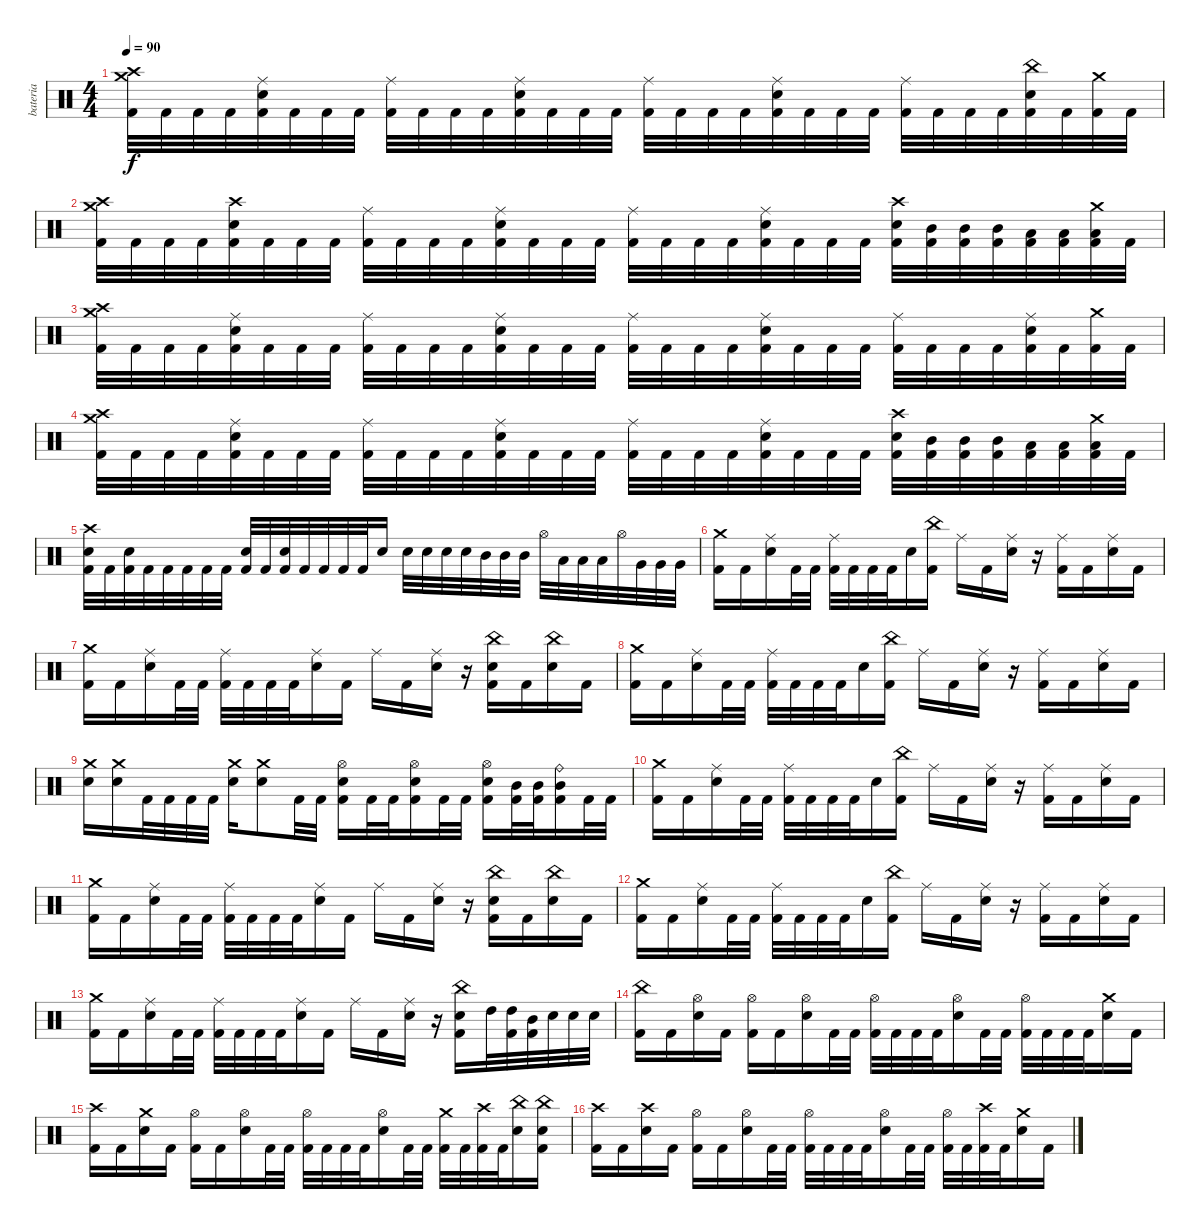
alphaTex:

\track ("bateria" "bateria") {instrument percussion}
\staff {score}
\articulation defaults
\ts (4 4)
\tempo 90
\clef neutral
\ks c
("Crash medium (hit)" "Crash high (hit)" "Kick (hit) 2").32{dy f} "Kick (hit) 2".32 "Kick (hit) 2".32 "Kick (hit) 2".32 ("Ride (middle)" "Snare (hit) 2" "Kick (hit) 2").32 "Kick (hit) 2".32 "Kick (hit) 2".32 "Kick (hit) 2".32 ("Ride (middle)" "Kick (hit) 2").32 "Kick (hit) 2".32 "Kick (hit) 2".32 "Kick (hit) 2".32 ("Ride (middle)" "Snare (hit) 2" "Kick (hit) 2").32 "Kick (hit) 2".32 "Kick (hit) 2".32 "Kick (hit) 2".32 ("Ride (middle)" "Kick (hit) 2").32 "Kick (hit) 2".32 "Kick (hit) 2".32 "Kick (hit) 2".32 ("Ride (middle)" "Snare (hit) 2" "Kick (hit) 2").32 "Kick (hit) 2".32 "Kick (hit) 2".32 "Kick (hit) 2".32 ("Ride (middle)" "Kick (hit) 2").32 "Kick (hit) 2".32 "Kick (hit) 2".32 "Kick (hit) 2".32 ("China (hit)" "Snare (hit) 2" "Kick (hit) 2").32 "Kick (hit) 2".32 ("Crash medium (hit)" "Kick (hit) 2").32 "Kick (hit) 2".32 |
("Crash medium (hit)" "Crash high (hit)" "Kick (hit) 2").32 "Kick (hit) 2".32 "Kick (hit) 2".32 "Kick (hit) 2".32 ("Crash high (hit)" "Snare (hit) 2" "Kick (hit) 2").32 "Kick (hit) 2".32 "Kick (hit) 2".32 "Kick (hit) 2".32 ("Ride (middle)" "Kick (hit) 2").32 "Kick (hit) 2".32 "Kick (hit) 2".32 "Kick (hit) 2".32 ("Ride (middle)" "Snare (hit) 2" "Kick (hit) 2").32 "Kick (hit) 2".32 "Kick (hit) 2".32 "Kick (hit) 2".32 ("Ride (middle)" "Kick (hit) 2").32 "Kick (hit) 2".32 "Kick (hit) 2".32 "Kick (hit) 2".32 ("Ride (middle)" "Snare (hit) 2" "Kick (hit) 2").32 "Kick (hit) 2".32 "Kick (hit) 2".32 "Kick (hit) 2".32 ("Crash high (hit)" "Snare (hit) 2" "Kick (hit) 2").32 ("Mid Tom (hit)" "Kick (hit) 2").32 ("Mid Tom (hit)" "Kick (hit) 2").32 ("Mid Tom (hit)" "Kick (hit) 2").32 ("Low Tom (hit)" "Kick (hit) 2").32 ("Low Tom (hit)" "Kick (hit) 2").32 ("Crash medium (hit)" "Low Tom (hit)" "Kick (hit) 2").32 "Kick (hit) 2".32 |
("Crash medium (hit)" "Crash high (hit)" "Kick (hit) 2").32 "Kick (hit) 2".32 "Kick (hit) 2".32 "Kick (hit) 2".32 ("Ride (middle)" "Snare (hit) 2" "Kick (hit) 2").32 "Kick (hit) 2".32 "Kick (hit) 2".32 "Kick (hit) 2".32 ("Ride (middle)" "Kick (hit) 2").32 "Kick (hit) 2".32 "Kick (hit) 2".32 "Kick (hit) 2".32 ("Ride (middle)" "Snare (hit) 2" "Kick (hit) 2").32 "Kick (hit) 2".32 "Kick (hit) 2".32 "Kick (hit) 2".32 ("Ride (middle)" "Kick (hit) 2").32 "Kick (hit) 2".32 "Kick (hit) 2".32 "Kick (hit) 2".32 ("Ride (middle)" "Snare (hit) 2" "Kick (hit) 2").32 "Kick (hit) 2".32 "Kick (hit) 2".32 "Kick (hit) 2".32 ("Ride (middle)" "Kick (hit) 2").32 "Kick (hit) 2".32 "Kick (hit) 2".32 "Kick (hit) 2".32 ("Ride (middle)" "Snare (hit) 2" "Kick (hit) 2").32 "Kick (hit) 2".32 ("Crash medium (hit)" "Kick (hit) 2").32 "Kick (hit) 2".32 |
("Crash medium (hit)" "Crash high (hit)" "Kick (hit) 2").32 "Kick (hit) 2".32 "Kick (hit) 2".32 "Kick (hit) 2".32 ("Ride (middle)" "Snare (hit) 2" "Kick (hit) 2").32 "Kick (hit) 2".32 "Kick (hit) 2".32 "Kick (hit) 2".32 ("Ride (middle)" "Kick (hit) 2").32 "Kick (hit) 2".32 "Kick (hit) 2".32 "Kick (hit) 2".32 ("Ride (middle)" "Snare (hit) 2" "Kick (hit) 2").32 "Kick (hit) 2".32 "Kick (hit) 2".32 "Kick (hit) 2".32 ("Ride (middle)" "Kick (hit) 2").32 "Kick (hit) 2".32 "Kick (hit) 2".32 "Kick (hit) 2".32 ("Ride (middle)" "Snare (hit) 2" "Kick (hit) 2").32 "Kick (hit) 2".32 "Kick (hit) 2".32 "Kick (hit) 2".32 ("Crash high (hit)" "Snare (hit) 2" "Kick (hit) 2").32 ("Mid Tom (hit)" "Kick (hit) 2").32 ("Mid Tom (hit)" "Kick (hit) 2").32 ("Mid Tom (hit)" "Kick (hit) 2").32 ("Low Tom (hit)" "Kick (hit) 2").32 ("Low Tom (hit)" "Kick (hit) 2").32 ("Crash medium (hit)" "Low Tom (hit)" "Kick (hit) 2").32 "Kick (hit) 2".32 |
("Crash high (hit)" "Snare (hit) 2" "Kick (hit) 2").32 "Kick (hit) 2".32 ("Snare (hit) 2" "Kick (hit) 2").32 "Kick (hit) 2".32 "Kick (hit) 2".32 "Kick (hit) 2".32 "Kick (hit) 2".32 "Kick (hit) 2".32 ("Snare (hit) 2" "Kick (hit) 2").32 "Kick (hit) 2".32 ("Snare (hit) 2" "Kick (hit) 2").32 "Kick (hit) 2".32 "Kick (hit) 2".32 "Kick (hit) 2".32 "Kick (hit) 2".32 "Snare (hit) 2".16 "Snare (hit) 2".32 "Snare (hit) 2".32 "Snare (hit) 2".32 "Snare (hit) 2".32 "Mid Tom (hit)".32 "Mid Tom (hit)".32 "Mid Tom (hit)".32 "Hi-Hat (open)".32 "Low Tom (hit)".32 "Low Tom (hit)".32 "Low Tom (hit)".32 "Hi-Hat (open)".32 "Very Low Tom (hit)".32 "Very Low Tom (hit)".32 "Very Low Tom (hit)".32 |
("Crash medium (hit)" "Kick (hit) 2").16 "Kick (hit) 2".16 ("Ride (middle)" "Snare (hit) 2").16 "Kick (hit) 2".32 "Kick (hit) 2".32 ("Ride (middle)" "Kick (hit) 2").32 "Kick (hit) 2".32 "Kick (hit) 2".32 "Kick (hit) 2".32 "Snare (hit) 2".16 ("China (hit)" "Kick (hit) 2").16 "Ride (middle)".16 "Kick (hit) 2".16 ("Ride (middle)" "Snare (hit) 2").16 r.16 ("Ride (middle)" "Kick (hit) 2").16 "Kick (hit) 2".16 ("Ride (middle)" "Snare (hit) 2").16 "Kick (hit) 2".16 |
("Crash medium (hit)" "Kick (hit) 2").16 "Kick (hit) 2".16 ("Ride (middle)" "Snare (hit) 2").16 "Kick (hit) 2".32 "Kick (hit) 2".32 ("Ride (middle)" "Kick (hit) 2").32 "Kick (hit) 2".32 "Kick (hit) 2".32 "Kick (hit) 2".32 ("Ride (middle)" "Snare (hit) 2").16 "Kick (hit) 2".16 "Ride (middle)".16 "Kick (hit) 2".16 ("Ride (middle)" "Snare (hit) 2").16 r.16 ("China (hit)" "Snare (hit) 2" "Kick (hit) 2").16 "Kick (hit) 2".16 ("China (hit)" "Snare (hit) 2").16 "Kick (hit) 2".16 |
("Crash medium (hit)" "Kick (hit) 2").16 "Kick (hit) 2".16 ("Ride (middle)" "Snare (hit) 2").16 "Kick (hit) 2".32 "Kick (hit) 2".32 ("Ride (middle)" "Kick (hit) 2").32 "Kick (hit) 2".32 "Kick (hit) 2".32 "Kick (hit) 2".32 "Snare (hit) 2".16 ("China (hit)" "Kick (hit) 2").16 "Ride (middle)".16 "Kick (hit) 2".16 ("Ride (middle)" "Snare (hit) 2").16 r.16 ("Ride (middle)" "Kick (hit) 2").16 "Kick (hit) 2".16 ("Ride (middle)" "Snare (hit) 2").16 "Kick (hit) 2".16 |
("Crash medium (hit)" "Snare (hit) 2").16 ("Crash medium (hit)" "Snare (hit) 2").16 "Kick (hit) 2".32 "Kick (hit) 2".32 "Kick (hit) 2".32 "Kick (hit) 2".32 ("Crash medium (hit)" "Snare (hit) 2").16 ("Crash medium (hit)" "Snare (hit) 2").8 "Kick (hit) 2".32 "Kick (hit) 2".32 ("Hi-Hat (open)" "Snare (hit) 2" "Kick (hit) 2").16 "Kick (hit) 2".32 "Kick (hit) 2".32 ("Hi-Hat (open)" "Snare (hit) 2" "Kick (hit) 2").16 "Kick (hit) 2".32 "Kick (hit) 2".32 ("Hi-Hat (open)" "Snare (hit) 2" "Kick (hit) 2").16 ("Mid Tom (hit)" "Kick (hit) 2").32 ("Mid Tom (hit)" "Kick (hit) 2").32 ("Ride (bell)" "Mid Tom (hit)" "Kick (hit) 2").16 "Kick (hit) 2".32 "Kick (hit) 2".32 |
("Crash medium (hit)" "Kick (hit) 2").16 "Kick (hit) 2".16 ("Ride (middle)" "Snare (hit) 2").16 "Kick (hit) 2".32 "Kick (hit) 2".32 ("Ride (middle)" "Kick (hit) 2").32 "Kick (hit) 2".32 "Kick (hit) 2".32 "Kick (hit) 2".32 "Snare (hit) 2".16 ("China (hit)" "Kick (hit) 2").16 "Ride (middle)".16 "Kick (hit) 2".16 ("Ride (middle)" "Snare (hit) 2").16 r.16 ("Ride (middle)" "Kick (hit) 2").16 "Kick (hit) 2".16 ("Ride (middle)" "Snare (hit) 2").16 "Kick (hit) 2".16 |
("Crash medium (hit)" "Kick (hit) 2").16 "Kick (hit) 2".16 ("Ride (middle)" "Snare (hit) 2").16 "Kick (hit) 2".32 "Kick (hit) 2".32 ("Ride (middle)" "Kick (hit) 2").32 "Kick (hit) 2".32 "Kick (hit) 2".32 "Kick (hit) 2".32 ("Ride (middle)" "Snare (hit) 2").16 "Kick (hit) 2".16 "Ride (middle)".16 "Kick (hit) 2".16 ("Ride (middle)" "Snare (hit) 2").16 r.16 ("China (hit)" "Snare (hit) 2" "Kick (hit) 2").16 "Kick (hit) 2".16 ("China (hit)" "Snare (hit) 2").16 "Kick (hit) 2".16 |
("Crash medium (hit)" "Kick (hit) 2").16 "Kick (hit) 2".16 ("Ride (middle)" "Snare (hit) 2").16 "Kick (hit) 2".32 "Kick (hit) 2".32 ("Ride (middle)" "Kick (hit) 2").32 "Kick (hit) 2".32 "Kick (hit) 2".32 "Kick (hit) 2".32 "Snare (hit) 2".16 ("China (hit)" "Kick (hit) 2").16 "Ride (middle)".16 "Kick (hit) 2".16 ("Ride (middle)" "Snare (hit) 2").16 r.16 ("Ride (middle)" "Kick (hit) 2").16 "Kick (hit) 2".16 ("Ride (middle)" "Snare (hit) 2").16 "Kick (hit) 2".16 |
("Crash medium (hit)" "Kick (hit) 2").16 "Kick (hit) 2".16 ("Ride (middle)" "Snare (hit) 2").16 "Kick (hit) 2".32 "Kick (hit) 2".32 ("Ride (middle)" "Kick (hit) 2").32 "Kick (hit) 2".32 "Kick (hit) 2".32 "Kick (hit) 2".32 ("Ride (middle)" "Snare (hit) 2").16 "Kick (hit) 2".16 "Ride (middle)".16 "Kick (hit) 2".16 ("Ride (middle)" "Snare (hit) 2").16 r.16 ("China (hit)" "Snare (hit) 2" "Kick (hit) 2").16 "High Tom (hit)".32 ("High Tom (hit)" "Kick (hit) 2").32 ("Mid Tom (hit)" "Kick (hit) 2").32 "Snare (hit) 2".32 "Snare (hit) 2".32 "Snare (hit) 2".32 |
("China (hit)" "Kick (hit) 2").16 "Kick (hit) 2".16 ("Hi-Hat (open)" "Snare (hit) 2").16 "Kick (hit) 2".16 ("Hi-Hat (open)" "Kick (hit) 2").16 "Kick (hit) 2".16 ("Hi-Hat (open)" "Snare (hit) 2").16 "Kick (hit) 2".32 "Kick (hit) 2".32 ("Hi-Hat (open)" "Kick (hit) 2").32 "Kick (hit) 2".32 "Kick (hit) 2".32 "Kick (hit) 2".32 ("Hi-Hat (open)" "Snare (hit) 2").16 "Kick (hit) 2".32 "Kick (hit) 2".32 ("Hi-Hat (open)" "Kick (hit) 2").32 "Kick (hit) 2".32 "Kick (hit) 2".32 "Kick (hit) 2".32 ("Crash medium (hit)" "Snare (hit) 2").16 "Kick (hit) 2".16 |
("Crash high (hit)" "Kick (hit) 2").16 "Kick (hit) 2".16 ("Crash medium (hit)" "Snare (hit) 2").16 "Kick (hit) 2".16 ("Hi-Hat (open)" "Kick (hit) 2").16 "Kick (hit) 2".16 ("Hi-Hat (open)" "Snare (hit) 2").16 "Kick (hit) 2".32 "Kick (hit) 2".32 ("Hi-Hat (open)" "Kick (hit) 2").32 "Kick (hit) 2".32 "Kick (hit) 2".32 "Kick (hit) 2".32 ("Hi-Hat (open)" "Snare (hit) 2").16 "Kick (hit) 2".32 "Kick (hit) 2".32 ("Crash medium (hit)" "Kick (hit) 2").32 "Kick (hit) 2".32 ("Crash high (hit)" "Kick (hit) 2").32 "Kick (hit) 2".32 ("China (hit)" "Snare (hit) 2").16 ("China (hit)" "Snare (hit) 2" "Kick (hit) 2").16 |
("Crash high (hit)" "Kick (hit) 2").16 "Kick (hit) 2".16 ("Crash high (hit)" "Snare (hit) 2").16 "Kick (hit) 2".16 ("Hi-Hat (open)" "Kick (hit) 2").16 "Kick (hit) 2".16 ("Hi-Hat (open)" "Snare (hit) 2").16 "Kick (hit) 2".32 "Kick (hit) 2".32 ("Hi-Hat (open)" "Kick (hit) 2").32 "Kick (hit) 2".32 "Kick (hit) 2".32 "Kick (hit) 2".32 ("Hi-Hat (open)" "Snare (hit) 2").16 "Kick (hit) 2".32 "Kick (hit) 2".32 ("Hi-Hat (open)" "Kick (hit) 2").32 "Kick (hit) 2".32 ("Crash high (hit)" "Kick (hit) 2").32 "Kick (hit) 2".32 ("Crash medium (hit)" "Snare (hit) 2").16 "Kick (hit) 2".16
